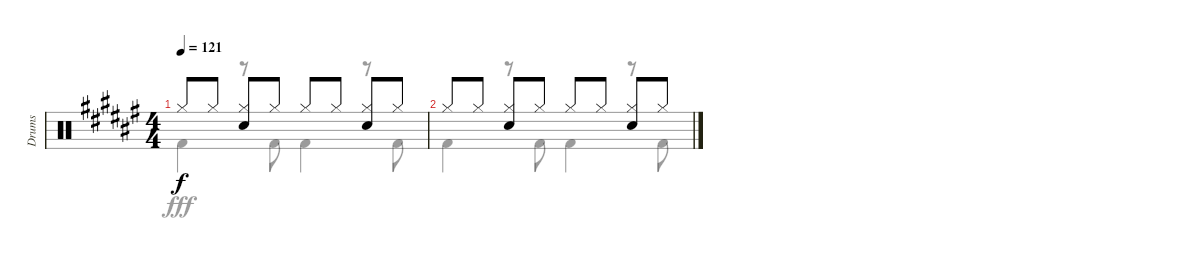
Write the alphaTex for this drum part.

\track ("Drums" "Drums") {instrument percussion}
\staff {score}
\articulation defaults
\voice
\ts (4 4)
\tempo 121
\clef neutral
\ks f# "Hi-Hat (closed)".8{dy f} "Hi-Hat (closed)".8
("Hi-Hat (closed)" "Snare (hit) 2").8 "Hi-Hat (closed)".8 "Hi-Hat (closed)".8 "Hi-Hat (closed)".8 ("Hi-Hat (closed)" "Snare (hit) 2").8 "Hi-Hat (closed)".8 |
"Hi-Hat (closed)".8 "Hi-Hat (closed)".8 ("Hi-Hat (closed)" "Snare (hit) 2").8 "Hi-Hat (closed)".8 "Hi-Hat (closed)".8 "Hi-Hat (closed)".8 ("Hi-Hat (closed)" "Snare (hit) 2").8 "Hi-Hat (closed)".8
\voice
\clef neutral
\ottava regular
\simile none
\ks f# "Kick (hit) 2".4{dy fff}
r.8 "Kick (hit) 2".8 "Kick (hit) 2".4 r.8 "Kick (hit) 2".8 |
"Kick (hit) 2".4 r.8 "Kick (hit) 2".8 "Kick (hit) 2".4 r.8 "Kick (hit) 2".8
